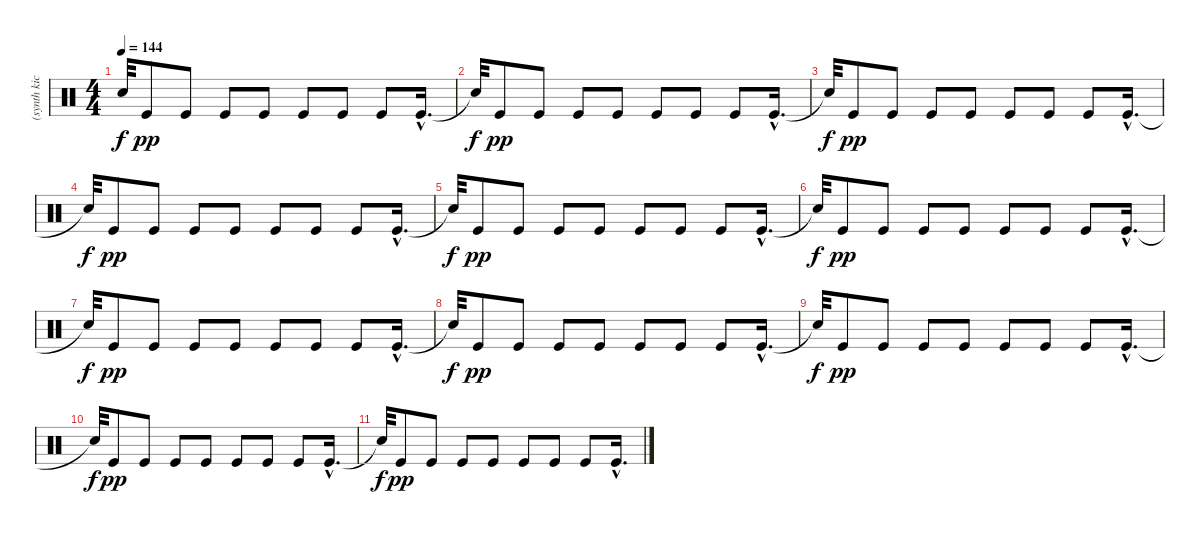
\track ("(synth kick loop reverb)" "(synth kic") {instrument percussion}
\staff {score}
\articulation defaults
\ts (4 4)
\tempo 144
\clef neutral
\ks c "Snare (hit)"{t}.32{dy f} "Kick (hit)".8{dy pp} "Kick (hit)".8 "Kick (hit)".8 "Kick (hit)".8 "Kick (hit)".8 "Kick (hit)".8 "Kick (hit)".8 "Kick (hit)"{hac}.16{d}
|
"Snare (hit)"{t}.32{dy f} "Kick (hit)".8{dy pp} "Kick (hit)".8 "Kick (hit)".8 "Kick (hit)".8 "Kick (hit)".8 "Kick (hit)".8 "Kick (hit)".8 "Kick (hit)"{hac}.16{d} |
"Snare (hit)"{t}.32{dy f} "Kick (hit)".8{dy pp} "Kick (hit)".8 "Kick (hit)".8 "Kick (hit)".8 "Kick (hit)".8 "Kick (hit)".8 "Kick (hit)".8 "Kick (hit)"{hac}.16{d} |
"Snare (hit)"{t}.32{dy f} "Kick (hit)".8{dy pp} "Kick (hit)".8 "Kick (hit)".8 "Kick (hit)".8 "Kick (hit)".8 "Kick (hit)".8 "Kick (hit)".8 "Kick (hit)"{hac}.16{d} |
"Snare (hit)"{t}.32{dy f} "Kick (hit)".8{dy pp} "Kick (hit)".8 "Kick (hit)".8 "Kick (hit)".8 "Kick (hit)".8 "Kick (hit)".8 "Kick (hit)".8 "Kick (hit)"{hac}.16{d} |
"Snare (hit)"{t}.32{dy f} "Kick (hit)".8{dy pp} "Kick (hit)".8 "Kick (hit)".8 "Kick (hit)".8 "Kick (hit)".8 "Kick (hit)".8 "Kick (hit)".8 "Kick (hit)"{hac}.16{d} |
"Snare (hit)"{t}.32{dy f} "Kick (hit)".8{dy pp} "Kick (hit)".8 "Kick (hit)".8 "Kick (hit)".8 "Kick (hit)".8 "Kick (hit)".8 "Kick (hit)".8 "Kick (hit)"{hac}.16{d} |
"Snare (hit)"{t}.32{dy f} "Kick (hit)".8{dy pp} "Kick (hit)".8 "Kick (hit)".8 "Kick (hit)".8 "Kick (hit)".8 "Kick (hit)".8 "Kick (hit)".8 "Kick (hit)"{hac}.16{d} |
"Snare (hit)"{t}.32{dy f} "Kick (hit)".8{dy pp} "Kick (hit)".8 "Kick (hit)".8 "Kick (hit)".8 "Kick (hit)".8 "Kick (hit)".8 "Kick (hit)".8 "Kick (hit)"{hac}.16{d} |
"Snare (hit)"{t}.32{dy f} "Kick (hit)".8{dy pp} "Kick (hit)".8 "Kick (hit)".8 "Kick (hit)".8 "Kick (hit)".8 "Kick (hit)".8 "Kick (hit)".8 "Kick (hit)"{hac}.16{d} |
"Snare (hit)"{t}.32{dy f} "Kick (hit)".8{dy pp} "Kick (hit)".8 "Kick (hit)".8 "Kick (hit)".8 "Kick (hit)".8 "Kick (hit)".8 "Kick (hit)".8 "Kick (hit)"{hac}.16{d}
